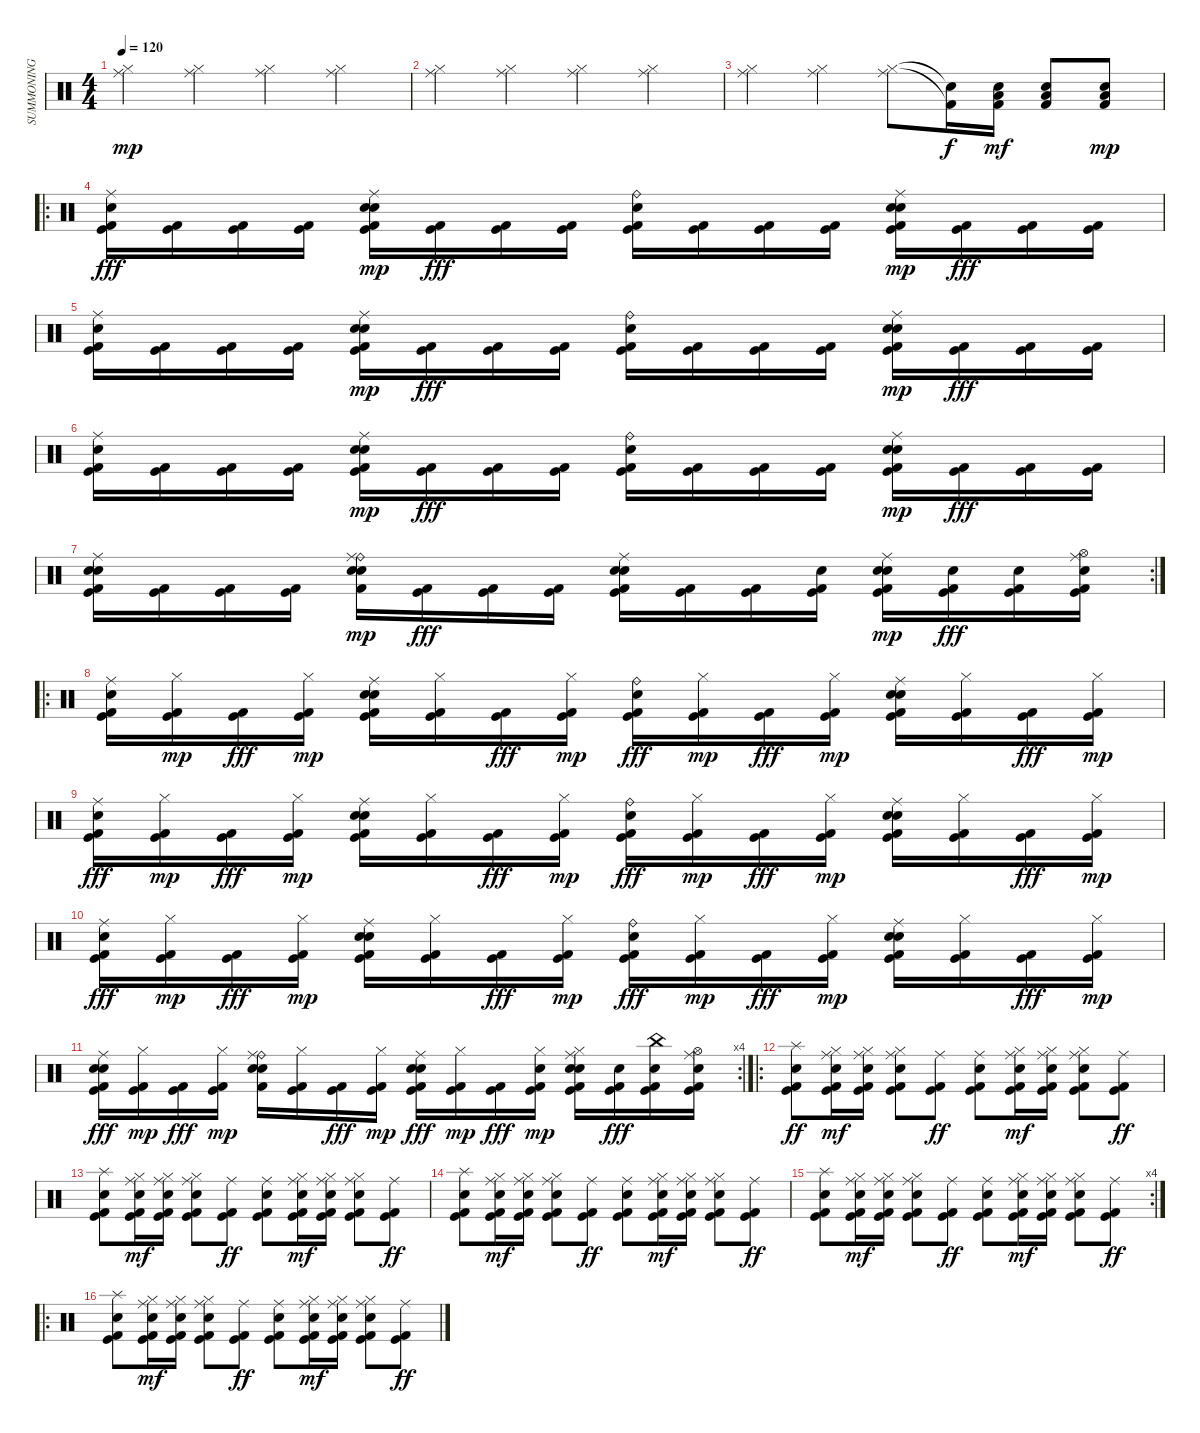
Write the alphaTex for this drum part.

\track ("SUMMONING" "SUMMONING") {instrument percussion}
\staff {score}
\articulation defaults
\ts (4 4)
\tempo 120
\clef neutral
\ks c
("Ride (middle)" "Hi-Hat (closed)").4{dy mp} ("Ride (middle)" "Hi-Hat (closed)").4 ("Ride (middle)" "Hi-Hat (closed)").4 ("Ride (middle)" "Hi-Hat (closed)").4 |
("Ride (middle)" "Hi-Hat (closed)").4 ("Ride (middle)" "Hi-Hat (closed)").4 ("Ride (middle)" "Hi-Hat (closed)").4 ("Ride (middle)" "Hi-Hat (closed)").4 |
("Ride (middle)" "Hi-Hat (closed)").4 ("Ride (middle)" "Hi-Hat (closed)").4 ("Ride (middle)" "Hi-Hat (closed)").8 ("Kick (hit) 2"{t} "Electric Snare (hit)"{t}).16{dy f} ("Low Floor Tom (hit)" "Kick (hit) 2" "Electric Snare (hit)").16{dy mf} ("Low Floor Tom (hit)" "Kick (hit) 2" "Electric Snare (hit)").8 ("Low Floor Tom (hit)" "Kick (hit) 2" "Electric Snare (hit)").8{dy mp} |
\ro
("Kick (hit) 2" "Kick (hit)" "Snare (hit) 2" "Ride (middle)").16{dy fff} ("Kick (hit) 2" "Kick (hit)").16 ("Kick (hit) 2" "Kick (hit)").16 ("Kick (hit) 2" "Kick (hit)").16 ("Kick (hit) 2" "Kick (hit)" "Electric Snare (hit)" "Ride (middle)" "Electric Snare (hit)").16{dy mp} ("Kick (hit) 2" "Kick (hit)").16{dy fff} ("Kick (hit) 2" "Kick (hit)").16 ("Kick (hit) 2" "Kick (hit)").16 ("Kick (hit) 2" "Kick (hit)" "Snare (hit) 2" "Ride (bell)").16 ("Kick (hit) 2" "Kick (hit)").16 ("Kick (hit) 2" "Kick (hit)").16 ("Kick (hit) 2" "Kick (hit)").16 ("Kick (hit) 2" "Kick (hit)" "Electric Snare (hit)" "Ride (middle)" "Electric Snare (hit)").16{dy mp} ("Kick (hit) 2" "Kick (hit)").16{dy fff} ("Kick (hit) 2" "Kick (hit)").16 ("Kick (hit) 2" "Kick (hit)").16 |
("Kick (hit) 2" "Kick (hit)" "Snare (hit) 2" "Ride (middle)").16 ("Kick (hit) 2" "Kick (hit)").16 ("Kick (hit) 2" "Kick (hit)").16 ("Kick (hit) 2" "Kick (hit)").16 ("Kick (hit) 2" "Kick (hit)" "Electric Snare (hit)" "Ride (middle)" "Electric Snare (hit)").16{dy mp} ("Kick (hit) 2" "Kick (hit)").16{dy fff} ("Kick (hit) 2" "Kick (hit)").16 ("Kick (hit) 2" "Kick (hit)").16 ("Kick (hit) 2" "Kick (hit)" "Snare (hit) 2" "Ride (bell)").16 ("Kick (hit) 2" "Kick (hit)").16 ("Kick (hit) 2" "Kick (hit)").16 ("Kick (hit) 2" "Kick (hit)").16 ("Kick (hit) 2" "Kick (hit)" "Electric Snare (hit)" "Ride (middle)" "Electric Snare (hit)").16{dy mp} ("Kick (hit) 2" "Kick (hit)").16{dy fff} ("Kick (hit) 2" "Kick (hit)").16 ("Kick (hit) 2" "Kick (hit)").16 |
("Kick (hit) 2" "Kick (hit)" "Snare (hit) 2" "Ride (middle)").16 ("Kick (hit) 2" "Kick (hit)").16 ("Kick (hit) 2" "Kick (hit)").16 ("Kick (hit) 2" "Kick (hit)").16 ("Kick (hit) 2" "Kick (hit)" "Electric Snare (hit)" "Ride (middle)" "Electric Snare (hit)").16{dy mp} ("Kick (hit) 2" "Kick (hit)").16{dy fff} ("Kick (hit) 2" "Kick (hit)").16 ("Kick (hit) 2" "Kick (hit)").16 ("Kick (hit) 2" "Kick (hit)" "Snare (hit) 2" "Ride (bell)").16 ("Kick (hit) 2" "Kick (hit)").16 ("Kick (hit) 2" "Kick (hit)").16 ("Kick (hit) 2" "Kick (hit)").16 ("Kick (hit) 2" "Kick (hit)" "Electric Snare (hit)" "Ride (middle)" "Electric Snare (hit)").16{dy mp} ("Kick (hit) 2" "Kick (hit)").16{dy fff} ("Kick (hit) 2" "Kick (hit)").16 ("Kick (hit) 2" "Kick (hit)").16 |
\rc 2
("Kick (hit) 2" "Kick (hit)" "Snare (hit) 2" "Electric Snare (hit)" "Ride (middle)").16 ("Kick (hit) 2" "Kick (hit)").16 ("Kick (hit) 2" "Kick (hit)").16 ("Kick (hit) 2" "Kick (hit)").16 ("Kick (hit) 2" "Ride (bell)" "Electric Snare (hit)" "Ride (middle)" "Electric Snare (hit)").16{dy mp} ("Kick (hit) 2" "Kick (hit)").16{dy fff} ("Kick (hit) 2" "Kick (hit)").16 ("Kick (hit) 2" "Kick (hit)").16 ("Kick (hit) 2" "Kick (hit)" "Snare (hit) 2" "Electric Snare (hit)" "Ride (middle)").16 ("Kick (hit) 2" "Kick (hit)").16 ("Kick (hit) 2" "Kick (hit)").16 ("Kick (hit) 2" "Kick (hit)" "Electric Snare (hit)").16 ("Kick (hit) 2" "Kick (hit)" "Electric Snare (hit)" "Ride (middle)" "Electric Snare (hit)").16{dy mp} ("Kick (hit) 2" "Kick (hit)" "Electric Snare (hit)").16{dy fff} ("Kick (hit) 2" "Kick (hit)" "Electric Snare (hit)").16 ("Kick (hit) 2" "Kick (hit)" "Ride (middle)" "Electric Snare (hit)" "Hi-Hat (open)").16 |
\ro
("Kick (hit) 2" "Kick (hit)" "Snare (hit) 2" "Ride (middle)").16 ("Kick (hit) 2" "Kick (hit)" "Hi-Hat (closed)").16{dy mp} ("Kick (hit) 2" "Kick (hit)").16{dy fff} ("Kick (hit) 2" "Kick (hit)" "Hi-Hat (closed)").16{dy mp} ("Kick (hit) 2" "Kick (hit)" "Electric Snare (hit)" "Ride (middle)" "Electric Snare (hit)").16 ("Kick (hit) 2" "Kick (hit)" "Hi-Hat (closed)").16 ("Kick (hit) 2" "Kick (hit)").16{dy fff} ("Kick (hit) 2" "Kick (hit)" "Hi-Hat (closed)").16{dy mp} ("Kick (hit) 2" "Kick (hit)" "Snare (hit) 2" "Ride (bell)").16{dy fff} ("Kick (hit) 2" "Kick (hit)" "Hi-Hat (closed)").16{dy mp} ("Kick (hit) 2" "Kick (hit)").16{dy fff} ("Kick (hit) 2" "Kick (hit)" "Hi-Hat (closed)").16{dy mp} ("Kick (hit) 2" "Kick (hit)" "Electric Snare (hit)" "Ride (middle)" "Electric Snare (hit)").16 ("Kick (hit) 2" "Kick (hit)" "Hi-Hat (closed)").16 ("Kick (hit) 2" "Kick (hit)").16{dy fff} ("Kick (hit) 2" "Kick (hit)" "Hi-Hat (closed)").16{dy mp} |
("Kick (hit) 2" "Kick (hit)" "Snare (hit) 2" "Ride (middle)").16{dy fff} ("Kick (hit) 2" "Kick (hit)" "Hi-Hat (closed)").16{dy mp} ("Kick (hit) 2" "Kick (hit)").16{dy fff} ("Kick (hit) 2" "Kick (hit)" "Hi-Hat (closed)").16{dy mp} ("Kick (hit) 2" "Kick (hit)" "Electric Snare (hit)" "Ride (middle)" "Electric Snare (hit)").16 ("Kick (hit) 2" "Kick (hit)" "Hi-Hat (closed)").16 ("Kick (hit) 2" "Kick (hit)").16{dy fff} ("Kick (hit) 2" "Kick (hit)" "Hi-Hat (closed)").16{dy mp} ("Kick (hit) 2" "Kick (hit)" "Snare (hit) 2" "Ride (bell)").16{dy fff} ("Kick (hit) 2" "Kick (hit)" "Hi-Hat (closed)").16{dy mp} ("Kick (hit) 2" "Kick (hit)").16{dy fff} ("Kick (hit) 2" "Kick (hit)" "Hi-Hat (closed)").16{dy mp} ("Kick (hit) 2" "Kick (hit)" "Electric Snare (hit)" "Ride (middle)" "Electric Snare (hit)").16 ("Kick (hit) 2" "Kick (hit)" "Hi-Hat (closed)").16 ("Kick (hit) 2" "Kick (hit)").16{dy fff} ("Kick (hit) 2" "Kick (hit)" "Hi-Hat (closed)").16{dy mp} |
("Kick (hit) 2" "Kick (hit)" "Snare (hit) 2" "Ride (middle)").16{dy fff} ("Kick (hit) 2" "Kick (hit)" "Hi-Hat (closed)").16{dy mp} ("Kick (hit) 2" "Kick (hit)").16{dy fff} ("Kick (hit) 2" "Kick (hit)" "Hi-Hat (closed)").16{dy mp} ("Kick (hit) 2" "Kick (hit)" "Electric Snare (hit)" "Ride (middle)" "Electric Snare (hit)").16 ("Kick (hit) 2" "Kick (hit)" "Hi-Hat (closed)").16 ("Kick (hit) 2" "Kick (hit)").16{dy fff} ("Kick (hit) 2" "Kick (hit)" "Hi-Hat (closed)").16{dy mp} ("Kick (hit) 2" "Kick (hit)" "Snare (hit) 2" "Ride (bell)").16{dy fff} ("Kick (hit) 2" "Kick (hit)" "Hi-Hat (closed)").16{dy mp} ("Kick (hit) 2" "Kick (hit)").16{dy fff} ("Kick (hit) 2" "Kick (hit)" "Hi-Hat (closed)").16{dy mp} ("Kick (hit) 2" "Kick (hit)" "Electric Snare (hit)" "Ride (middle)" "Electric Snare (hit)").16 ("Kick (hit) 2" "Kick (hit)" "Hi-Hat (closed)").16 ("Kick (hit) 2" "Kick (hit)").16{dy fff} ("Kick (hit) 2" "Kick (hit)" "Hi-Hat (closed)").16{dy mp} |
\rc 4
("Kick (hit) 2" "Kick (hit)" "Snare (hit) 2" "Electric Snare (hit)" "Ride (middle)").16{dy fff} ("Kick (hit) 2" "Kick (hit)" "Hi-Hat (closed)").16{dy mp} ("Kick (hit) 2" "Kick (hit)").16{dy fff} ("Kick (hit) 2" "Kick (hit)" "Hi-Hat (closed)").16{dy mp} ("Kick (hit) 2" "Ride (bell)" "Electric Snare (hit)" "Ride (middle)" "Electric Snare (hit)").16 ("Kick (hit) 2" "Kick (hit)" "Hi-Hat (closed)").16 ("Kick (hit) 2" "Kick (hit)").16{dy fff} ("Kick (hit) 2" "Kick (hit)" "Hi-Hat (closed)").16{dy mp} ("Kick (hit) 2" "Kick (hit)" "Snare (hit) 2" "Electric Snare (hit)" "Ride (middle)").16{dy fff} ("Kick (hit) 2" "Kick (hit)" "Hi-Hat (closed)").16{dy mp} ("Kick (hit) 2" "Kick (hit)").16{dy fff} ("Kick (hit) 2" "Kick (hit)" "Hi-Hat (closed)" "Electric Snare (hit)").16{dy mp} ("Kick (hit) 2" "Kick (hit)" "Hi-Hat (closed)" "Electric Snare (hit)" "Ride (middle)" "Electric Snare (hit)").16 ("Kick (hit) 2" "Kick (hit)" "Electric Snare (hit)").16{dy fff} ("Kick (hit) 2" "Kick (hit)" "China (hit)" "Electric Snare (hit)").16 ("Kick (hit) 2" "Kick (hit)" "Ride (middle)" "Electric Snare (hit)" "Hi-Hat (open)").16 |
\ro
("Kick (hit) 2" "Kick (hit)" "Snare (hit) 2" "Splash (hit)").8{dy ff} ("Kick (hit) 2" "Kick (hit)" "Electric Snare (hit)" "Hi-Hat (closed)" "Ride (middle)").16{dy mf} ("Kick (hit) 2" "Kick (hit)" "Electric Snare (hit)" "Hi-Hat (closed)" "Ride (middle)").16 ("Kick (hit) 2" "Kick (hit)" "Electric Snare (hit)" "Hi-Hat (closed)" "Ride (middle)").8 ("Kick (hit) 2" "Kick (hit)" "Ride (middle)").8{dy ff} ("Kick (hit) 2" "Kick (hit)" "Snare (hit) 2" "Ride (middle)").8 ("Kick (hit) 2" "Kick (hit)" "Electric Snare (hit)" "Hi-Hat (closed)" "Ride (middle)").16{dy mf} ("Kick (hit) 2" "Kick (hit)" "Electric Snare (hit)" "Hi-Hat (closed)" "Ride (middle)").16 ("Kick (hit) 2" "Kick (hit)" "Electric Snare (hit)" "Hi-Hat (closed)" "Ride (middle)").8 ("Kick (hit) 2" "Kick (hit)" "Ride (middle)").8{dy ff} |
("Kick (hit) 2" "Kick (hit)" "Snare (hit) 2" "Splash (hit)").8 ("Kick (hit) 2" "Kick (hit)" "Electric Snare (hit)" "Hi-Hat (closed)" "Ride (middle)").16{dy mf} ("Kick (hit) 2" "Kick (hit)" "Electric Snare (hit)" "Hi-Hat (closed)" "Ride (middle)").16 ("Kick (hit) 2" "Kick (hit)" "Electric Snare (hit)" "Hi-Hat (closed)" "Ride (middle)").8 ("Kick (hit) 2" "Kick (hit)" "Ride (middle)").8{dy ff} ("Kick (hit) 2" "Kick (hit)" "Snare (hit) 2" "Ride (middle)").8 ("Kick (hit) 2" "Kick (hit)" "Electric Snare (hit)" "Hi-Hat (closed)" "Ride (middle)").16{dy mf} ("Kick (hit) 2" "Kick (hit)" "Electric Snare (hit)" "Hi-Hat (closed)" "Ride (middle)").16 ("Kick (hit) 2" "Kick (hit)" "Electric Snare (hit)" "Hi-Hat (closed)" "Ride (middle)").8 ("Kick (hit) 2" "Kick (hit)" "Ride (middle)").8{dy ff} |
("Kick (hit) 2" "Kick (hit)" "Snare (hit) 2" "Splash (hit)").8 ("Kick (hit) 2" "Kick (hit)" "Electric Snare (hit)" "Hi-Hat (closed)" "Ride (middle)").16{dy mf} ("Kick (hit) 2" "Kick (hit)" "Electric Snare (hit)" "Hi-Hat (closed)" "Ride (middle)").16 ("Kick (hit) 2" "Kick (hit)" "Electric Snare (hit)" "Hi-Hat (closed)" "Ride (middle)").8 ("Kick (hit) 2" "Kick (hit)" "Ride (middle)").8{dy ff} ("Kick (hit) 2" "Kick (hit)" "Snare (hit) 2" "Ride (middle)").8 ("Kick (hit) 2" "Kick (hit)" "Electric Snare (hit)" "Hi-Hat (closed)" "Ride (middle)").16{dy mf} ("Kick (hit) 2" "Kick (hit)" "Electric Snare (hit)" "Hi-Hat (closed)" "Ride (middle)").16 ("Kick (hit) 2" "Kick (hit)" "Electric Snare (hit)" "Hi-Hat (closed)" "Ride (middle)").8 ("Kick (hit) 2" "Kick (hit)" "Ride (middle)").8{dy ff} |
\rc 4
("Kick (hit) 2" "Kick (hit)" "Snare (hit) 2" "Splash (hit)").8 ("Kick (hit) 2" "Kick (hit)" "Electric Snare (hit)" "Hi-Hat (closed)" "Ride (middle)").16{dy mf} ("Kick (hit) 2" "Kick (hit)" "Electric Snare (hit)" "Hi-Hat (closed)" "Ride (middle)").16 ("Kick (hit) 2" "Kick (hit)" "Electric Snare (hit)" "Hi-Hat (closed)" "Ride (middle)").8 ("Kick (hit) 2" "Kick (hit)" "Ride (middle)").8{dy ff} ("Kick (hit) 2" "Kick (hit)" "Snare (hit) 2" "Ride (middle)").8 ("Kick (hit) 2" "Kick (hit)" "Electric Snare (hit)" "Hi-Hat (closed)" "Ride (middle)").16{dy mf} ("Kick (hit) 2" "Kick (hit)" "Electric Snare (hit)" "Hi-Hat (closed)" "Ride (middle)").16 ("Kick (hit) 2" "Kick (hit)" "Electric Snare (hit)" "Hi-Hat (closed)" "Ride (middle)").8 ("Kick (hit) 2" "Kick (hit)" "Ride (middle)").8{dy ff} |
\ro
("Kick (hit) 2" "Kick (hit)" "Snare (hit) 2" "Splash (hit)").8 ("Kick (hit) 2" "Kick (hit)" "Electric Snare (hit)" "Hi-Hat (closed)" "Ride (middle)").16{dy mf} ("Kick (hit) 2" "Kick (hit)" "Electric Snare (hit)" "Hi-Hat (closed)" "Ride (middle)").16 ("Kick (hit) 2" "Kick (hit)" "Electric Snare (hit)" "Hi-Hat (closed)" "Ride (middle)").8 ("Kick (hit) 2" "Kick (hit)" "Ride (middle)").8{dy ff} ("Kick (hit) 2" "Kick (hit)" "Snare (hit) 2" "Ride (middle)").8 ("Kick (hit) 2" "Kick (hit)" "Electric Snare (hit)" "Hi-Hat (closed)" "Ride (middle)").16{dy mf} ("Kick (hit) 2" "Kick (hit)" "Electric Snare (hit)" "Hi-Hat (closed)" "Ride (middle)").16 ("Kick (hit) 2" "Kick (hit)" "Electric Snare (hit)" "Hi-Hat (closed)" "Ride (middle)").8 ("Kick (hit) 2" "Kick (hit)" "Ride (middle)").8{dy ff}
